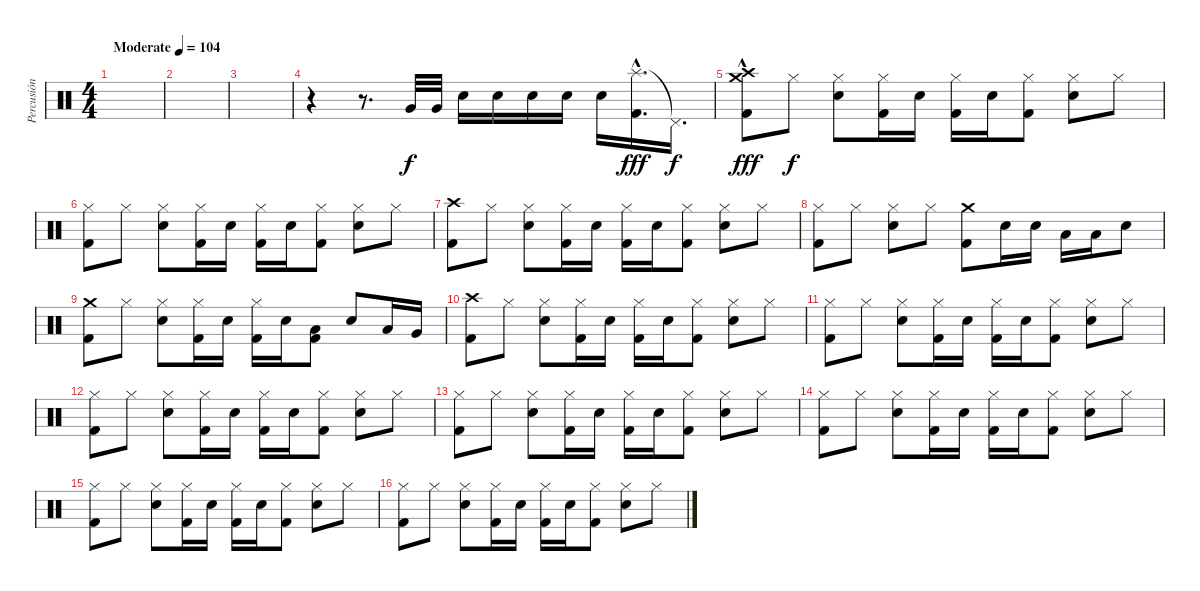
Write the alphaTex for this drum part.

\track ("Percusión" "Percusión") {instrument percussion}
\staff {score}
\articulation defaults
\ts (4 4)
\tempo (104 "Moderate")
\clef neutral
\ks c
|
|
|
r.4 r.8{d} "Very Low Tom (hit)".32 "Very Low Tom (hit)".32 "Snare (hit) 2".16 "Snare (hit) 2".16 "Snare (hit) 2".16 "Snare (hit) 2".16 "Snare (hit) 2".16 ("Splash (hit)"{hac} "Kick (hit) 2").16{d dy fff} "Pedal Hi-Hat (hit)"{t}.16{d dy f} |
("Crash medium (hit)"{hac} "Crash high (hit)"{hac} "Kick (hit) 2").8{dy fff} "Hi-Hat (closed)".8{dy f} ("Hi-Hat (closed)" "Snare (hit) 2").8 ("Hi-Hat (closed)" "Kick (hit) 2").16 "Snare (hit) 2".16 ("Hi-Hat (closed)" "Kick (hit) 2").16 "Snare (hit) 2".16 ("Hi-Hat (closed)" "Kick (hit) 2").8 ("Hi-Hat (closed)" "Snare (hit) 2").8 "Hi-Hat (closed)".8 |
("Hi-Hat (closed)" "Kick (hit) 2").8 "Hi-Hat (closed)".8 ("Hi-Hat (closed)" "Snare (hit) 2").8 ("Hi-Hat (closed)" "Kick (hit) 2").16 "Snare (hit) 2".16 ("Hi-Hat (closed)" "Kick (hit) 2").16 "Snare (hit) 2".16 ("Hi-Hat (closed)" "Kick (hit) 2").8 ("Hi-Hat (closed)" "Snare (hit) 2").8 "Hi-Hat (closed)".8 |
("Crash high (hit)" "Kick (hit) 2").8 "Hi-Hat (closed)".8 ("Hi-Hat (closed)" "Snare (hit) 2").8 ("Hi-Hat (closed)" "Kick (hit) 2").16 "Snare (hit) 2".16 ("Hi-Hat (closed)" "Kick (hit) 2").16 "Snare (hit) 2".16 ("Hi-Hat (closed)" "Kick (hit) 2").8 ("Hi-Hat (closed)" "Snare (hit) 2").8 "Hi-Hat (closed)".8 |
("Hi-Hat (closed)" "Kick (hit) 2").8 "Hi-Hat (closed)".8 ("Hi-Hat (closed)" "Snare (hit) 2").8 "Hi-Hat (closed)".8 ("Crash medium (hit)" "Kick (hit) 2").8 "Snare (hit) 2".16 "Snare (hit) 2".16 "Low Tom (hit)".16 "Low Tom (hit)".16 "Snare (hit) 2".8 |
("Crash medium (hit)" "Kick (hit) 2").8 "Hi-Hat (closed)".8 ("Hi-Hat (closed)" "Snare (hit) 2").8 ("Hi-Hat (closed)" "Kick (hit) 2").16 "Snare (hit) 2".16 ("Hi-Hat (closed)" "Kick (hit) 2").16 "Snare (hit) 2".16 ("Low Tom (hit)" "Kick (hit) 2").8 "Snare (hit) 2".8 "Low Tom (hit)".16 "Very Low Tom (hit)".16 |
("Crash high (hit)" "Kick (hit) 2").8 "Hi-Hat (closed)".8 ("Hi-Hat (closed)" "Snare (hit) 2").8 ("Hi-Hat (closed)" "Kick (hit) 2").16 "Snare (hit) 2".16 ("Hi-Hat (closed)" "Kick (hit) 2").16 "Snare (hit) 2".16 ("Hi-Hat (closed)" "Kick (hit) 2").8 ("Hi-Hat (closed)" "Snare (hit) 2").8 "Hi-Hat (closed)".8 |
("Hi-Hat (closed)" "Kick (hit) 2").8 "Hi-Hat (closed)".8 ("Hi-Hat (closed)" "Snare (hit) 2").8 ("Hi-Hat (closed)" "Kick (hit) 2").16 "Snare (hit) 2".16 ("Hi-Hat (closed)" "Kick (hit) 2").16 "Snare (hit) 2".16 ("Hi-Hat (closed)" "Kick (hit) 2").8 ("Hi-Hat (closed)" "Snare (hit) 2").8 "Hi-Hat (closed)".8 |
("Hi-Hat (closed)" "Kick (hit) 2").8 "Hi-Hat (closed)".8 ("Hi-Hat (closed)" "Snare (hit) 2").8 ("Hi-Hat (closed)" "Kick (hit) 2").16 "Snare (hit) 2".16 ("Hi-Hat (closed)" "Kick (hit) 2").16 "Snare (hit) 2".16 ("Hi-Hat (closed)" "Kick (hit) 2").8 ("Hi-Hat (closed)" "Snare (hit) 2").8 "Hi-Hat (closed)".8 |
("Hi-Hat (closed)" "Kick (hit) 2").8 "Hi-Hat (closed)".8 ("Hi-Hat (closed)" "Snare (hit) 2").8 ("Hi-Hat (closed)" "Kick (hit) 2").16 "Snare (hit) 2".16 ("Hi-Hat (closed)" "Kick (hit) 2").16 "Snare (hit) 2".16 ("Hi-Hat (closed)" "Kick (hit) 2").8 ("Hi-Hat (closed)" "Snare (hit) 2").8 "Hi-Hat (closed)".8 |
("Hi-Hat (closed)" "Kick (hit) 2").8 "Hi-Hat (closed)".8 ("Hi-Hat (closed)" "Snare (hit) 2").8 ("Hi-Hat (closed)" "Kick (hit) 2").16 "Snare (hit) 2".16 ("Hi-Hat (closed)" "Kick (hit) 2").16 "Snare (hit) 2".16 ("Hi-Hat (closed)" "Kick (hit) 2").8 ("Hi-Hat (closed)" "Snare (hit) 2").8 "Hi-Hat (closed)".8 |
("Hi-Hat (closed)" "Kick (hit) 2").8 "Hi-Hat (closed)".8 ("Hi-Hat (closed)" "Snare (hit) 2").8 ("Hi-Hat (closed)" "Kick (hit) 2").16 "Snare (hit) 2".16 ("Hi-Hat (closed)" "Kick (hit) 2").16 "Snare (hit) 2".16 ("Hi-Hat (closed)" "Kick (hit) 2").8 ("Hi-Hat (closed)" "Snare (hit) 2").8 "Hi-Hat (closed)".8 |
("Hi-Hat (closed)" "Kick (hit) 2").8 "Hi-Hat (closed)".8 ("Hi-Hat (closed)" "Snare (hit) 2").8 ("Hi-Hat (closed)" "Kick (hit) 2").16 "Snare (hit) 2".16 ("Hi-Hat (closed)" "Kick (hit) 2").16 "Snare (hit) 2".16 ("Hi-Hat (closed)" "Kick (hit) 2").8 ("Hi-Hat (closed)" "Snare (hit) 2").8 "Hi-Hat (closed)".8
